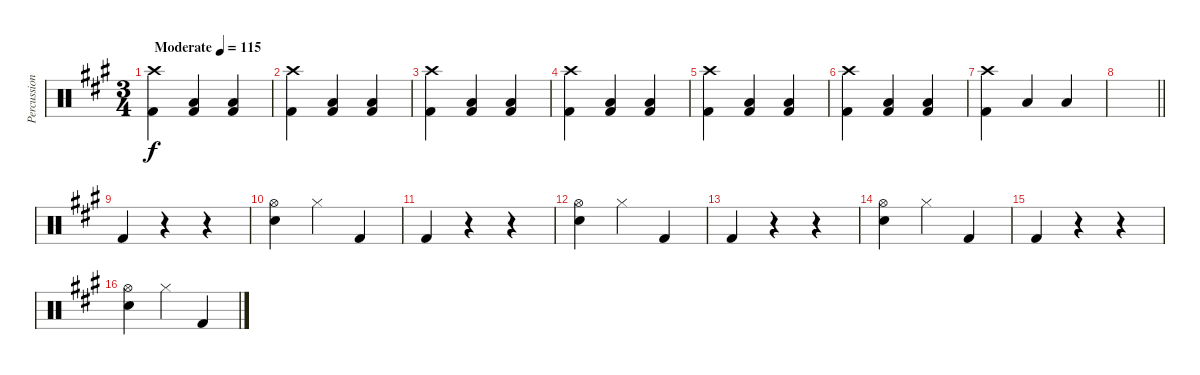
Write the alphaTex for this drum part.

\track ("Percussion" "Percussion") {instrument percussion}
\staff {score}
\articulation defaults
\ts (3 4)
\tempo (115 "Moderate")
\clef neutral
\ks a
("Crash high (hit)" "Kick (hit) 2").4{dy f} ("Low Floor Tom (hit)" "Kick (hit) 2").4 ("Low Tom (hit)" "Kick (hit) 2").4 |
("Crash high (hit)" "Kick (hit) 2").4 ("Low Floor Tom (hit)" "Kick (hit) 2").4 ("Low Tom (hit)" "Kick (hit) 2").4 |
("Crash high (hit)" "Kick (hit) 2").4 ("Low Floor Tom (hit)" "Kick (hit) 2").4 ("Low Tom (hit)" "Kick (hit) 2").4 |
("Crash high (hit)" "Kick (hit) 2").4 ("Low Floor Tom (hit)" "Kick (hit) 2").4 ("Low Tom (hit)" "Kick (hit) 2").4 |
("Crash high (hit)" "Kick (hit) 2").4 ("Low Floor Tom (hit)" "Kick (hit) 2").4 ("Low Tom (hit)" "Kick (hit) 2").4 |
("Crash high (hit)" "Kick (hit) 2").4 ("Low Floor Tom (hit)" "Kick (hit) 2").4 ("Low Tom (hit)" "Kick (hit) 2").4 |
("Crash high (hit)" "Kick (hit) 2").4 "Low Floor Tom (hit)".4 "Low Tom (hit)".4 |
\barLineRight lightlight
|
"Kick (hit) 2".4 r.4 r.4 |
("Hi-Hat (open)" "Snare (hit) 2").4 "Hi-Hat (closed)".4 "Kick (hit) 2".4 |
"Kick (hit) 2".4 r.4 r.4 |
("Hi-Hat (open)" "Snare (hit) 2").4 "Hi-Hat (closed)".4 "Kick (hit) 2".4 |
"Kick (hit) 2".4 r.4 r.4 |
("Hi-Hat (open)" "Snare (hit) 2").4 "Hi-Hat (closed)".4 "Kick (hit) 2".4 |
"Kick (hit) 2".4 r.4 r.4 |
("Hi-Hat (open)" "Snare (hit) 2").4 "Hi-Hat (closed)".4 "Kick (hit) 2".4
